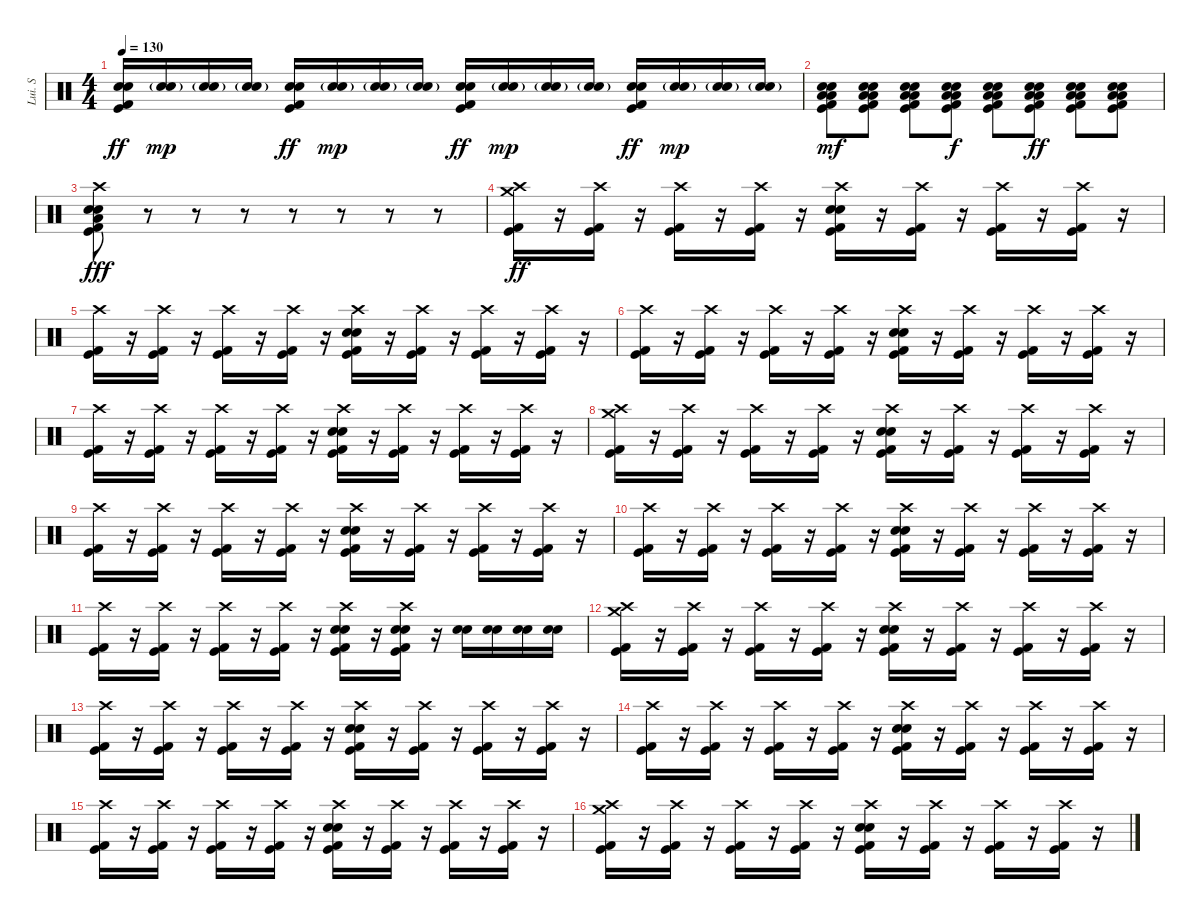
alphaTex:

\track ("Lui. S" "Lui. S") {instrument percussion}
\staff {score}
\articulation defaults
\ts (4 4)
\tempo 130
\clef neutral
\ks c
("Snare (hit) 2" "Electric Snare (hit)" "Kick (hit) 2" "Kick (hit)").16{dy ff} ("Snare (hit) 2"{g} "Electric Snare (hit)"{g}).16{dy mp} ("Snare (hit) 2"{g} "Electric Snare (hit)"{g}).16 ("Snare (hit) 2"{g} "Electric Snare (hit)"{g}).16 ("Snare (hit) 2" "Electric Snare (hit)" "Kick (hit)" "Kick (hit) 2").16{dy ff} ("Snare (hit) 2"{g} "Electric Snare (hit)"{g}).16{dy mp} ("Snare (hit) 2"{g} "Electric Snare (hit)"{g}).16 ("Snare (hit) 2"{g} "Electric Snare (hit)"{g}).16 ("Snare (hit) 2" "Electric Snare (hit)" "Kick (hit)" "Kick (hit) 2").16{dy ff} ("Snare (hit) 2"{g} "Electric Snare (hit)"{g}).16{dy mp} ("Snare (hit) 2"{g} "Electric Snare (hit)"{g}).16 ("Snare (hit) 2"{g} "Electric Snare (hit)"{g}).16 ("Snare (hit) 2" "Electric Snare (hit)" "Kick (hit)" "Kick (hit) 2").16{dy ff} ("Snare (hit) 2"{g} "Electric Snare (hit)"{g}).16{dy mp} ("Snare (hit) 2"{g} "Electric Snare (hit)"{g}).16 ("Snare (hit) 2"{g} "Electric Snare (hit)"{g}).16 |
("Low Floor Tom (hit)" "Low Floor Tom (hit)" "Snare (hit) 2" "Electric Snare (hit)" "Kick (hit) 2" "Kick (hit)").8{dy mf} ("Low Floor Tom (hit)" "Low Floor Tom (hit)" "Snare (hit) 2" "Electric Snare (hit)" "Kick (hit) 2" "Kick (hit)").8 ("Low Floor Tom (hit)" "Low Floor Tom (hit)" "Snare (hit) 2" "Electric Snare (hit)" "Kick (hit) 2" "Kick (hit)").8 ("Low Floor Tom (hit)" "Low Floor Tom (hit)" "Snare (hit) 2" "Electric Snare (hit)" "Kick (hit) 2" "Kick (hit)").8{dy f} ("Low Floor Tom (hit)" "Low Floor Tom (hit)" "Snare (hit) 2" "Electric Snare (hit)" "Kick (hit) 2" "Kick (hit)").8 ("Low Floor Tom (hit)" "Low Floor Tom (hit)" "Snare (hit) 2" "Electric Snare (hit)" "Kick (hit) 2" "Kick (hit)").8{dy ff} ("Low Floor Tom (hit)" "Low Floor Tom (hit)" "Snare (hit) 2" "Electric Snare (hit)" "Kick (hit) 2" "Kick (hit)").8 ("Low Floor Tom (hit)" "Low Floor Tom (hit)" "Snare (hit) 2" "Electric Snare (hit)" "Kick (hit) 2" "Kick (hit)").8 |
("Crash high (hit)" "Low Floor Tom (hit)" "Electric Snare (hit)" "Snare (hit) 2" "Kick (hit)" "Kick (hit) 2").8{dy fff} r.8 r.8 r.8 r.8 r.8 r.8 r.8 |
("Crash high (hit)" "Crash medium (hit)" "Kick (hit)" "Kick (hit) 2").16{dy ff} r.16 ("Crash high (hit)" "Kick (hit)" "Kick (hit) 2").16 r.16 ("Crash high (hit)" "Kick (hit)" "Kick (hit) 2").16 r.16 ("Crash high (hit)" "Kick (hit)" "Kick (hit) 2").16 r.16 ("Crash high (hit)" "Electric Snare (hit)" "Snare (hit) 2" "Kick (hit)" "Kick (hit) 2").16 r.16 ("Crash high (hit)" "Kick (hit)" "Kick (hit) 2").16 r.16 ("Crash high (hit)" "Kick (hit)" "Kick (hit) 2").16 r.16 ("Crash high (hit)" "Kick (hit)" "Kick (hit) 2").16 r.16 |
("Crash high (hit)" "Kick (hit)" "Kick (hit) 2").16 r.16 ("Crash high (hit)" "Kick (hit)" "Kick (hit) 2").16 r.16 ("Crash high (hit)" "Kick (hit)" "Kick (hit) 2").16 r.16 ("Crash high (hit)" "Kick (hit)" "Kick (hit) 2").16 r.16 ("Crash high (hit)" "Electric Snare (hit)" "Snare (hit) 2" "Kick (hit)" "Kick (hit) 2").16 r.16 ("Crash high (hit)" "Kick (hit)" "Kick (hit) 2").16 r.16 ("Crash high (hit)" "Kick (hit)" "Kick (hit) 2").16 r.16 ("Crash high (hit)" "Kick (hit)" "Kick (hit) 2").16 r.16 |
("Crash high (hit)" "Kick (hit)" "Kick (hit) 2").16 r.16 ("Crash high (hit)" "Kick (hit)" "Kick (hit) 2").16 r.16 ("Crash high (hit)" "Kick (hit)" "Kick (hit) 2").16 r.16 ("Crash high (hit)" "Kick (hit)" "Kick (hit) 2").16 r.16 ("Crash high (hit)" "Electric Snare (hit)" "Snare (hit) 2" "Kick (hit)" "Kick (hit) 2").16 r.16 ("Crash high (hit)" "Kick (hit)" "Kick (hit) 2").16 r.16 ("Crash high (hit)" "Kick (hit)" "Kick (hit) 2").16 r.16 ("Crash high (hit)" "Kick (hit)" "Kick (hit) 2").16 r.16 |
("Crash high (hit)" "Kick (hit)" "Kick (hit) 2").16 r.16 ("Crash high (hit)" "Kick (hit)" "Kick (hit) 2").16 r.16 ("Crash high (hit)" "Kick (hit)" "Kick (hit) 2").16 r.16 ("Crash high (hit)" "Kick (hit)" "Kick (hit) 2").16 r.16 ("Crash high (hit)" "Electric Snare (hit)" "Snare (hit) 2" "Kick (hit)" "Kick (hit) 2").16 r.16 ("Crash high (hit)" "Kick (hit)" "Kick (hit) 2").16 r.16 ("Crash high (hit)" "Kick (hit)" "Kick (hit) 2").16 r.16 ("Crash high (hit)" "Kick (hit)" "Kick (hit) 2").16 r.16 |
("Crash high (hit)" "Crash medium (hit)" "Kick (hit)" "Kick (hit) 2").16 r.16 ("Crash high (hit)" "Kick (hit)" "Kick (hit) 2").16 r.16 ("Crash high (hit)" "Kick (hit)" "Kick (hit) 2").16 r.16 ("Crash high (hit)" "Kick (hit)" "Kick (hit) 2").16 r.16 ("Crash high (hit)" "Electric Snare (hit)" "Snare (hit) 2" "Kick (hit)" "Kick (hit) 2").16 r.16 ("Crash high (hit)" "Kick (hit)" "Kick (hit) 2").16 r.16 ("Crash high (hit)" "Kick (hit)" "Kick (hit) 2").16 r.16 ("Crash high (hit)" "Kick (hit)" "Kick (hit) 2").16 r.16 |
("Crash high (hit)" "Kick (hit)" "Kick (hit) 2").16 r.16 ("Crash high (hit)" "Kick (hit)" "Kick (hit) 2").16 r.16 ("Crash high (hit)" "Kick (hit)" "Kick (hit) 2").16 r.16 ("Crash high (hit)" "Kick (hit)" "Kick (hit) 2").16 r.16 ("Crash high (hit)" "Electric Snare (hit)" "Snare (hit) 2" "Kick (hit)" "Kick (hit) 2").16 r.16 ("Crash high (hit)" "Kick (hit)" "Kick (hit) 2").16 r.16 ("Crash high (hit)" "Kick (hit)" "Kick (hit) 2").16 r.16 ("Crash high (hit)" "Kick (hit)" "Kick (hit) 2").16 r.16 |
("Crash high (hit)" "Kick (hit)" "Kick (hit) 2").16 r.16 ("Crash high (hit)" "Kick (hit)" "Kick (hit) 2").16 r.16 ("Crash high (hit)" "Kick (hit)" "Kick (hit) 2").16 r.16 ("Crash high (hit)" "Kick (hit)" "Kick (hit) 2").16 r.16 ("Crash high (hit)" "Electric Snare (hit)" "Snare (hit) 2" "Kick (hit)" "Kick (hit) 2").16 r.16 ("Crash high (hit)" "Kick (hit)" "Kick (hit) 2").16 r.16 ("Crash high (hit)" "Kick (hit)" "Kick (hit) 2").16 r.16 ("Crash high (hit)" "Kick (hit)" "Kick (hit) 2").16 r.16 |
("Crash high (hit)" "Kick (hit)" "Kick (hit) 2").16 r.16 ("Crash high (hit)" "Kick (hit)" "Kick (hit) 2").16 r.16 ("Crash high (hit)" "Kick (hit)" "Kick (hit) 2").16 r.16 ("Crash high (hit)" "Kick (hit)" "Kick (hit) 2").16 r.16 ("Crash high (hit)" "Electric Snare (hit)" "Snare (hit) 2" "Kick (hit)" "Kick (hit) 2").16 r.16 ("Crash high (hit)" "Snare (hit) 2" "Electric Snare (hit)" "Kick (hit)" "Kick (hit) 2").16 r.16 ("Snare (hit) 2" "Electric Snare (hit)").16 ("Snare (hit) 2" "Electric Snare (hit)").16 ("Snare (hit) 2" "Electric Snare (hit)").16 ("Snare (hit) 2" "Electric Snare (hit)").16 |
("Crash high (hit)" "Crash medium (hit)" "Kick (hit)" "Kick (hit) 2").16 r.16 ("Crash high (hit)" "Kick (hit)" "Kick (hit) 2").16 r.16 ("Crash high (hit)" "Kick (hit)" "Kick (hit) 2").16 r.16 ("Crash high (hit)" "Kick (hit)" "Kick (hit) 2").16 r.16 ("Crash high (hit)" "Electric Snare (hit)" "Snare (hit) 2" "Kick (hit)" "Kick (hit) 2").16 r.16 ("Crash high (hit)" "Kick (hit)" "Kick (hit) 2").16 r.16 ("Crash high (hit)" "Kick (hit)" "Kick (hit) 2").16 r.16 ("Crash high (hit)" "Kick (hit)" "Kick (hit) 2").16 r.16 |
("Crash high (hit)" "Kick (hit)" "Kick (hit) 2").16 r.16 ("Crash high (hit)" "Kick (hit)" "Kick (hit) 2").16 r.16 ("Crash high (hit)" "Kick (hit)" "Kick (hit) 2").16 r.16 ("Crash high (hit)" "Kick (hit)" "Kick (hit) 2").16 r.16 ("Crash high (hit)" "Electric Snare (hit)" "Snare (hit) 2" "Kick (hit)" "Kick (hit) 2").16 r.16 ("Crash high (hit)" "Kick (hit)" "Kick (hit) 2").16 r.16 ("Crash high (hit)" "Kick (hit)" "Kick (hit) 2").16 r.16 ("Crash high (hit)" "Kick (hit)" "Kick (hit) 2").16 r.16 |
("Crash high (hit)" "Kick (hit)" "Kick (hit) 2").16 r.16 ("Crash high (hit)" "Kick (hit)" "Kick (hit) 2").16 r.16 ("Crash high (hit)" "Kick (hit)" "Kick (hit) 2").16 r.16 ("Crash high (hit)" "Kick (hit)" "Kick (hit) 2").16 r.16 ("Crash high (hit)" "Electric Snare (hit)" "Snare (hit) 2" "Kick (hit)" "Kick (hit) 2").16 r.16 ("Crash high (hit)" "Kick (hit)" "Kick (hit) 2").16 r.16 ("Crash high (hit)" "Kick (hit)" "Kick (hit) 2").16 r.16 ("Crash high (hit)" "Kick (hit)" "Kick (hit) 2").16 r.16 |
("Crash high (hit)" "Kick (hit)" "Kick (hit) 2").16 r.16 ("Crash high (hit)" "Kick (hit)" "Kick (hit) 2").16 r.16 ("Crash high (hit)" "Kick (hit)" "Kick (hit) 2").16 r.16 ("Crash high (hit)" "Kick (hit)" "Kick (hit) 2").16 r.16 ("Crash high (hit)" "Electric Snare (hit)" "Snare (hit) 2" "Kick (hit)" "Kick (hit) 2").16 r.16 ("Crash high (hit)" "Kick (hit)" "Kick (hit) 2").16 r.16 ("Crash high (hit)" "Kick (hit)" "Kick (hit) 2").16 r.16 ("Crash high (hit)" "Kick (hit)" "Kick (hit) 2").16 r.16 |
("Crash high (hit)" "Crash medium (hit)" "Kick (hit)" "Kick (hit) 2").16 r.16 ("Crash high (hit)" "Kick (hit)" "Kick (hit) 2").16 r.16 ("Crash high (hit)" "Kick (hit)" "Kick (hit) 2").16 r.16 ("Crash high (hit)" "Kick (hit)" "Kick (hit) 2").16 r.16 ("Crash high (hit)" "Electric Snare (hit)" "Snare (hit) 2" "Kick (hit)" "Kick (hit) 2").16 r.16 ("Crash high (hit)" "Kick (hit)" "Kick (hit) 2").16 r.16 ("Crash high (hit)" "Kick (hit)" "Kick (hit) 2").16 r.16 ("Crash high (hit)" "Kick (hit)" "Kick (hit) 2").16 r.16
